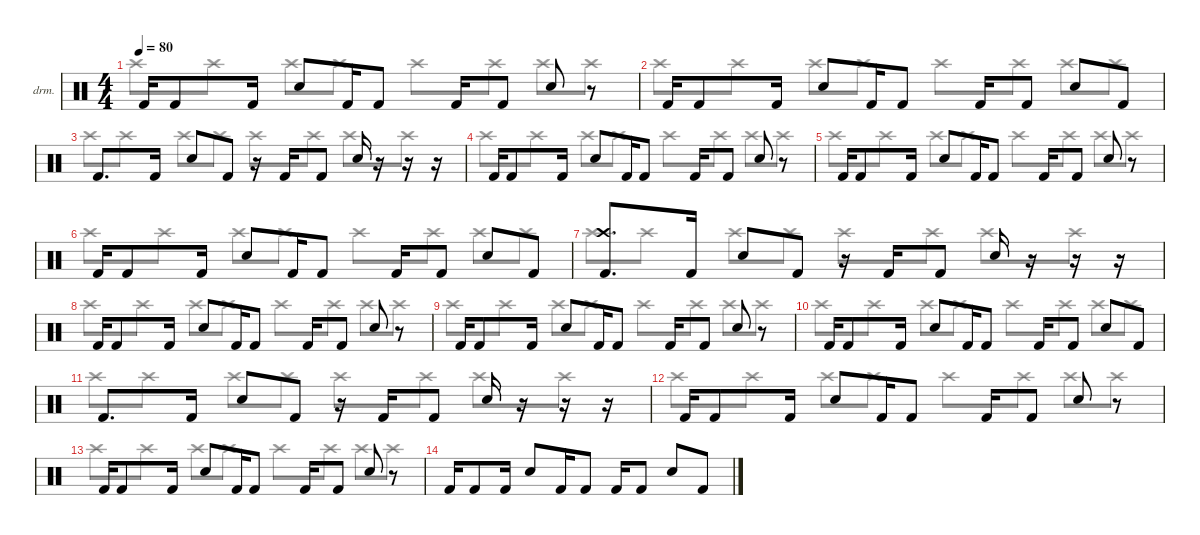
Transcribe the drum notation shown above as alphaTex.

\defaultSystemsLayout 4
\hideDynamics
\bracketExtendMode nobrackets
\firstSystemTrackNameOrientation horizontal
\otherSystemsTrackNameOrientation horizontal
\track ("Drumkit" "drm.") {instrument percussion}
\staff {score}
\articulation defaults
\voice
\ts (4 4)
\tempo 80
\clef neutral
\ks c "Kick (hit) 2".16{dy mf beam Up} "Kick (hit) 2".8{beam Up} "Kick (hit) 2".16{beam Up} "Snare (hit) 2".8{beam Up} "Kick (hit) 2".16{beam Up} "Kick (hit) 2".8{beam Up} "Kick (hit) 2".16{beam Up} "Kick (hit) 2".8{beam Up} "Snare (hit) 2".8{beam Up}
r.8{beam Up} |
"Kick (hit) 2".16{beam Up} "Kick (hit) 2".8{beam Up} "Kick (hit) 2".16{beam Up} "Snare (hit) 2".8{beam Up} "Kick (hit) 2".16{beam Up} "Kick (hit) 2".8{beam Up} "Kick (hit) 2".16{beam Up} "Kick (hit) 2".8{beam Up} "Snare (hit) 2".8{beam Up} "Kick (hit) 2".8{beam Up} |
"Kick (hit) 2".8{d beam Up} "Kick (hit) 2".16{beam Up} "Snare (hit) 2".8{beam Up} "Kick (hit) 2".8{beam Up} r.16{beam Up} "Kick (hit) 2".16{beam Up} "Kick (hit) 2".8{beam Up} "Snare (hit) 2".16{beam Up} r.16{beam Up} r.16{beam Up} r.16{beam Up} |
"Kick (hit) 2".16{beam Up} "Kick (hit) 2".8{beam Up} "Kick (hit) 2".16{beam Up} "Snare (hit) 2".8{beam Up} "Kick (hit) 2".16{beam Up} "Kick (hit) 2".8{beam Up} "Kick (hit) 2".16{beam Up} "Kick (hit) 2".8{beam Up} "Snare (hit) 2".8{beam Up} r.8{beam Up} |
"Kick (hit) 2".16{beam Up} "Kick (hit) 2".8{beam Up} "Kick (hit) 2".16{beam Up} "Snare (hit) 2".8{beam Up} "Kick (hit) 2".16{beam Up} "Kick (hit) 2".8{beam Up} "Kick (hit) 2".16{beam Up} "Kick (hit) 2".8{beam Up} "Snare (hit) 2".8{beam Up} r.8{beam Up} |
"Kick (hit) 2".16{beam Up} "Kick (hit) 2".8{beam Up} "Kick (hit) 2".16{beam Up} "Snare (hit) 2".8{beam Up} "Kick (hit) 2".16{beam Up} "Kick (hit) 2".8{beam Up} "Kick (hit) 2".16{beam Up} "Kick (hit) 2".8{beam Up} "Snare (hit) 2".8{beam Up} "Kick (hit) 2".8{beam Up} |
("Kick (hit) 2" "Crash high (hit)").8{d beam Up} "Kick (hit) 2".16{beam Up} "Snare (hit) 2".8{beam Up} "Kick (hit) 2".8{beam Up} r.16{beam Up} "Kick (hit) 2".16{beam Up} "Kick (hit) 2".8{beam Up} "Snare (hit) 2".16{beam Up} r.16{beam Up} r.16{beam Up} r.16{beam Up} |
"Kick (hit) 2".16{beam Up} "Kick (hit) 2".8{beam Up} "Kick (hit) 2".16{beam Up} "Snare (hit) 2".8{beam Up} "Kick (hit) 2".16{beam Up} "Kick (hit) 2".8{beam Up} "Kick (hit) 2".16{beam Up} "Kick (hit) 2".8{beam Up} "Snare (hit) 2".8{beam Up} r.8{beam Up} |
"Kick (hit) 2".16{beam Up} "Kick (hit) 2".8{beam Up} "Kick (hit) 2".16{beam Up} "Snare (hit) 2".8{beam Up} "Kick (hit) 2".16{beam Up} "Kick (hit) 2".8{beam Up} "Kick (hit) 2".16{beam Up} "Kick (hit) 2".8{beam Up} "Snare (hit) 2".8{beam Up} r.8{beam Up} |
"Kick (hit) 2".16{beam Up} "Kick (hit) 2".8{beam Up} "Kick (hit) 2".16{beam Up} "Snare (hit) 2".8{beam Up} "Kick (hit) 2".16{beam Up} "Kick (hit) 2".8{beam Up} "Kick (hit) 2".16{beam Up} "Kick (hit) 2".8{beam Up} "Snare (hit) 2".8{beam Up} "Kick (hit) 2".8{beam Up} |
"Kick (hit) 2".8{d beam Up} "Kick (hit) 2".16{beam Up} "Snare (hit) 2".8{beam Up} "Kick (hit) 2".8{beam Up} r.16{beam Up} "Kick (hit) 2".16{beam Up} "Kick (hit) 2".8{beam Up} "Snare (hit) 2".16{beam Up} r.16{beam Up} r.16{beam Up} r.16{beam Up} |
"Kick (hit) 2".16{beam Up} "Kick (hit) 2".8{beam Up} "Kick (hit) 2".16{beam Up} "Snare (hit) 2".8{beam Up} "Kick (hit) 2".16{beam Up} "Kick (hit) 2".8{beam Up} "Kick (hit) 2".16{beam Up} "Kick (hit) 2".8{beam Up} "Snare (hit) 2".8{beam Up} r.8{beam Up} |
"Kick (hit) 2".16{beam Up} "Kick (hit) 2".8{beam Up} "Kick (hit) 2".16{beam Up} "Snare (hit) 2".8{beam Up} "Kick (hit) 2".16{beam Up} "Kick (hit) 2".8{beam Up} "Kick (hit) 2".16{beam Up} "Kick (hit) 2".8{beam Up} "Snare (hit) 2".8{beam Up} r.8{beam Up} |
"Kick (hit) 2".16{beam Up} "Kick (hit) 2".8{beam Up} "Kick (hit) 2".16{beam Up} "Snare (hit) 2".8{beam Up} "Kick (hit) 2".16{beam Up} "Kick (hit) 2".8{beam Up} "Kick (hit) 2".16{beam Up} "Kick (hit) 2".8{beam Up} "Snare (hit) 2".8{beam Up} "Kick (hit) 2".8{beam Up} |
|
\voice
\clef neutral
\ottava regular
\simile none
\ks c "Crash high (hit)".8{dy mf beam Down} "Crash high (hit)".8{beam Down} "Crash high (hit)".8{beam Down} "Crash high (hit)".8{beam Down} "Crash high (hit)".8{beam Down} "Crash high (hit)".8{beam Down} "Crash high (hit)".8{beam Down} "Crash high (hit)".8{beam Down}
|
"Crash high (hit)".8{beam Down} "Crash high (hit)".8{beam Down} "Crash high (hit)".8{beam Down} "Crash high (hit)".8{beam Down} "Crash high (hit)".8{beam Down} "Crash high (hit)".8{beam Down} "Crash high (hit)".8{beam Down} "Crash high (hit)".8{beam Down} |
"Crash high (hit)".8{beam Down} "Crash high (hit)".8{beam Down} "Crash high (hit)".8{beam Down} "Crash high (hit)".8{beam Down} "Crash high (hit)".8{beam Down} "Crash high (hit)".8{beam Down} "Crash high (hit)".8{beam Down} "Crash high (hit)".8{beam Down} |
"Crash high (hit)".8{beam Down} "Crash high (hit)".8{beam Down} "Crash high (hit)".8{beam Down} "Crash high (hit)".8{beam Down} "Crash high (hit)".8{beam Down} "Crash high (hit)".8{beam Down} "Crash high (hit)".8{beam Down} "Crash high (hit)".8{beam Down} |
"Crash high (hit)".8{beam Down} "Crash high (hit)".8{beam Down} "Crash high (hit)".8{beam Down} "Crash high (hit)".8{beam Down} "Crash high (hit)".8{beam Down} "Crash high (hit)".8{beam Down} "Crash high (hit)".8{beam Down} "Crash high (hit)".8{beam Down} |
"Crash high (hit)".8{beam Down} "Crash high (hit)".8{beam Down} "Crash high (hit)".8{beam Down} "Crash high (hit)".8{beam Down} "Crash high (hit)".8{beam Down} "Crash high (hit)".8{beam Down} "Crash high (hit)".8{beam Down} "Crash high (hit)".8{beam Down} |
"Crash high (hit)".8{beam Down} "Crash high (hit)".8{beam Down} "Crash high (hit)".8{beam Down} "Crash high (hit)".8{beam Down} "Crash high (hit)".8{beam Down} "Crash high (hit)".8{beam Down} "Crash high (hit)".8{beam Down} "Crash high (hit)".8{beam Down} |
"Crash high (hit)".8{beam Down} "Crash high (hit)".8{beam Down} "Crash high (hit)".8{beam Down} "Crash high (hit)".8{beam Down} "Crash high (hit)".8{beam Down} "Crash high (hit)".8{beam Down} "Crash high (hit)".8{beam Down} "Crash high (hit)".8{beam Down} |
"Crash high (hit)".8{beam Down} "Crash high (hit)".8{beam Down} "Crash high (hit)".8{beam Down} "Crash high (hit)".8{beam Down} "Crash high (hit)".8{beam Down} "Crash high (hit)".8{beam Down} "Crash high (hit)".8{beam Down} "Crash high (hit)".8{beam Down} |
"Crash high (hit)".8{beam Down} "Crash high (hit)".8{beam Down} "Crash high (hit)".8{beam Down} "Crash high (hit)".8{beam Down} "Crash high (hit)".8{beam Down} "Crash high (hit)".8{beam Down} "Crash high (hit)".8{beam Down} "Crash high (hit)".8{beam Down} |
"Crash high (hit)".8{beam Down} "Crash high (hit)".8{beam Down} "Crash high (hit)".8{beam Down} "Crash high (hit)".8{beam Down} "Crash high (hit)".8{beam Down} "Crash high (hit)".8{beam Down} "Crash high (hit)".8{beam Down} "Crash high (hit)".8{beam Down} |
"Crash high (hit)".8{beam Down} "Crash high (hit)".8{beam Down} "Crash high (hit)".8{beam Down} "Crash high (hit)".8{beam Down} "Crash high (hit)".8{beam Down} "Crash high (hit)".8{beam Down} "Crash high (hit)".8{beam Down} "Crash high (hit)".8{beam Down} |
"Crash high (hit)".8{beam Down} "Crash high (hit)".8{beam Down} "Crash high (hit)".8{beam Down} "Crash high (hit)".8{beam Down} "Crash high (hit)".8{beam Down} "Crash high (hit)".8{beam Down} "Crash high (hit)".8{beam Down} "Crash high (hit)".8{beam Down} |
|
|
